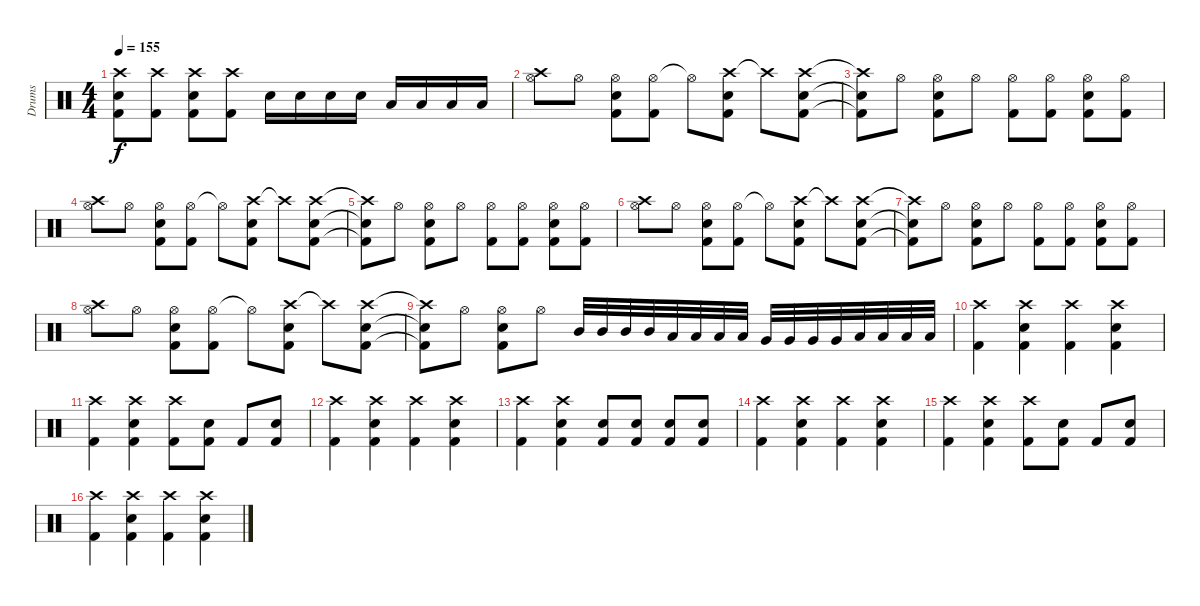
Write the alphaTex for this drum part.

\track ("Drums" "Drums") {instrument percussion}
\staff {score}
\articulation defaults
\ts (4 4)
\tempo 155
\clef neutral
\ks c
("Crash high (hit)" "Snare (hit) 2" "Kick (hit) 2").8{dy f} ("Crash high (hit)" "Kick (hit) 2").8 ("Crash high (hit)" "Snare (hit) 2" "Kick (hit) 2").8 ("Crash high (hit)" "Kick (hit) 2").8 "Snare (hit) 2".16 "Snare (hit) 2".16 "Snare (hit) 2".16 "Snare (hit) 2".16 "Low Floor Tom (hit)".16 "Low Floor Tom (hit)".16 "Low Floor Tom (hit)".16 "Low Floor Tom (hit)".16 |
("Crash high (hit)" "Hi-Hat (open)").8 "Hi-Hat (open)".8 ("Hi-Hat (open)" "Kick (hit) 2" "Snare (hit) 2").8 ("Hi-Hat (open)" "Kick (hit) 2").8 "Hi-Hat (open)"{t}.8 ("Crash high (hit)" "Kick (hit) 2" "Snare (hit) 2").8 "Crash high (hit)"{t}.8 ("Crash high (hit)" "Kick (hit) 2" "Snare (hit) 2").8 |
("Crash high (hit)"{t} "Kick (hit) 2"{t} "Snare (hit) 2"{t}).8 "Hi-Hat (open)".8 ("Hi-Hat (open)" "Kick (hit) 2" "Snare (hit) 2").8 "Hi-Hat (open)".8 ("Hi-Hat (open)" "Kick (hit) 2").8 ("Hi-Hat (open)" "Kick (hit) 2").8 ("Hi-Hat (open)" "Kick (hit) 2" "Snare (hit) 2").8 ("Hi-Hat (open)" "Kick (hit) 2").8 |
("Crash high (hit)" "Hi-Hat (open)").8 "Hi-Hat (open)".8 ("Hi-Hat (open)" "Kick (hit) 2" "Snare (hit) 2").8 ("Hi-Hat (open)" "Kick (hit) 2").8 "Hi-Hat (open)"{t}.8 ("Crash high (hit)" "Kick (hit) 2" "Snare (hit) 2").8 "Crash high (hit)"{t}.8 ("Crash high (hit)" "Kick (hit) 2" "Snare (hit) 2").8 |
("Crash high (hit)"{t} "Kick (hit) 2"{t} "Snare (hit) 2"{t}).8 "Hi-Hat (open)".8 ("Hi-Hat (open)" "Kick (hit) 2" "Snare (hit) 2").8 "Hi-Hat (open)".8 ("Hi-Hat (open)" "Kick (hit) 2").8 ("Hi-Hat (open)" "Kick (hit) 2").8 ("Hi-Hat (open)" "Kick (hit) 2" "Snare (hit) 2").8 ("Hi-Hat (open)" "Kick (hit) 2").8 |
("Crash high (hit)" "Hi-Hat (open)").8 "Hi-Hat (open)".8 ("Hi-Hat (open)" "Kick (hit) 2" "Snare (hit) 2").8 ("Hi-Hat (open)" "Kick (hit) 2").8 "Hi-Hat (open)"{t}.8 ("Crash high (hit)" "Kick (hit) 2" "Snare (hit) 2").8 "Crash high (hit)"{t}.8 ("Crash high (hit)" "Kick (hit) 2" "Snare (hit) 2").8 |
("Crash high (hit)"{t} "Kick (hit) 2"{t} "Snare (hit) 2"{t}).8 "Hi-Hat (open)".8 ("Hi-Hat (open)" "Kick (hit) 2" "Snare (hit) 2").8 "Hi-Hat (open)".8 ("Hi-Hat (open)" "Kick (hit) 2").8 ("Hi-Hat (open)" "Kick (hit) 2").8 ("Hi-Hat (open)" "Kick (hit) 2" "Snare (hit) 2").8 ("Hi-Hat (open)" "Kick (hit) 2").8 |
("Crash high (hit)" "Hi-Hat (open)").8 "Hi-Hat (open)".8 ("Hi-Hat (open)" "Kick (hit) 2" "Snare (hit) 2").8 ("Hi-Hat (open)" "Kick (hit) 2").8 "Hi-Hat (open)"{t}.8 ("Crash high (hit)" "Kick (hit) 2" "Snare (hit) 2").8 "Crash high (hit)"{t}.8 ("Crash high (hit)" "Kick (hit) 2" "Snare (hit) 2").8 |
("Crash high (hit)"{t} "Kick (hit) 2"{t} "Snare (hit) 2"{t}).8 "Hi-Hat (open)".8 ("Hi-Hat (open)" "Kick (hit) 2" "Snare (hit) 2").8 "Hi-Hat (open)".8 "Mid Tom (hit)".32 "Mid Tom (hit)".32 "Mid Tom (hit)".32 "Mid Tom (hit)".32 "Low Tom (hit)".32 "Low Tom (hit)".32 "Low Tom (hit)".32 "Low Tom (hit)".32 "Very Low Tom (hit)".32 "Very Low Tom (hit)".32 "Very Low Tom (hit)".32 "Very Low Tom (hit)".32 "Low Floor Tom (hit)".32 "Low Floor Tom (hit)".32 "Low Floor Tom (hit)".32 "Low Floor Tom (hit)".32 |
("Crash high (hit)" "Kick (hit) 2").4 ("Crash high (hit)" "Snare (hit) 2" "Kick (hit) 2").4 ("Crash high (hit)" "Kick (hit) 2").4 ("Crash high (hit)" "Snare (hit) 2" "Kick (hit) 2").4 |
("Crash high (hit)" "Kick (hit) 2").4 ("Crash high (hit)" "Snare (hit) 2" "Kick (hit) 2").4 ("Crash high (hit)" "Kick (hit) 2").8 ("Snare (hit) 2" "Kick (hit) 2").8 "Kick (hit) 2".8 ("Snare (hit) 2" "Kick (hit) 2").8 |
("Crash high (hit)" "Kick (hit) 2").4 ("Crash high (hit)" "Snare (hit) 2" "Kick (hit) 2").4 ("Crash high (hit)" "Kick (hit) 2").4 ("Crash high (hit)" "Snare (hit) 2" "Kick (hit) 2").4 |
("Crash high (hit)" "Kick (hit) 2").4 ("Crash high (hit)" "Snare (hit) 2" "Kick (hit) 2").4 ("Snare (hit) 2" "Kick (hit) 2").8 ("Snare (hit) 2" "Kick (hit) 2").8 ("Snare (hit) 2" "Kick (hit) 2").8 ("Snare (hit) 2" "Kick (hit) 2").8 |
("Crash high (hit)" "Kick (hit) 2").4 ("Crash high (hit)" "Snare (hit) 2" "Kick (hit) 2").4 ("Crash high (hit)" "Kick (hit) 2").4 ("Crash high (hit)" "Snare (hit) 2" "Kick (hit) 2").4 |
("Crash high (hit)" "Kick (hit) 2").4 ("Crash high (hit)" "Snare (hit) 2" "Kick (hit) 2").4 ("Crash high (hit)" "Kick (hit) 2").8 ("Snare (hit) 2" "Kick (hit) 2").8 "Kick (hit) 2".8 ("Snare (hit) 2" "Kick (hit) 2").8 |
("Crash high (hit)" "Kick (hit) 2").4 ("Crash high (hit)" "Snare (hit) 2" "Kick (hit) 2").4 ("Crash high (hit)" "Kick (hit) 2").4 ("Crash high (hit)" "Snare (hit) 2" "Kick (hit) 2").4
